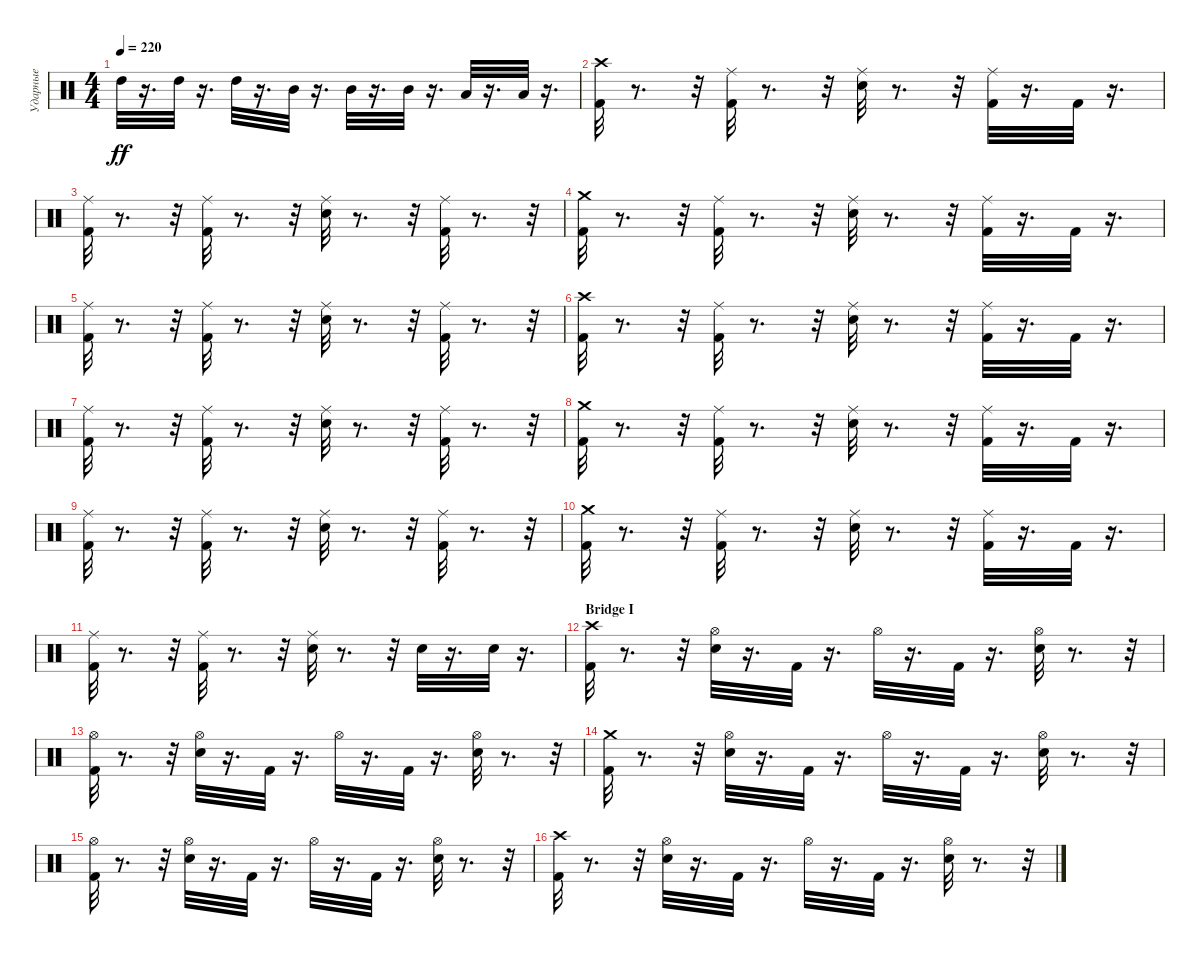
\track ("Ударные" "Ударные") {instrument percussion}
\staff {score}
\articulation defaults
\ts (4 4)
\tempo 220
\clef neutral
\ks c "High Tom (hit)".32{dy ff}
r.16{d} "High Tom (hit)".32 r.16{d} "High Tom (hit)".32 r.16{d} "Mid Tom (hit)".32 r.16{d} "Mid Tom (hit)".32 r.16{d} "Mid Tom (hit)".32 r.16{d} "Low Tom (hit)".32 r.16{d} "Low Tom (hit)".32 r.16{d} |
("Crash high (hit)" "Kick (hit) 2").32 r.8{d} r.32 ("Ride (middle)" "Kick (hit) 2").32 r.8{d} r.32 ("Ride (middle)" "Snare (hit) 2").32 r.8{d} r.32 ("Ride (middle)" "Kick (hit) 2").32 r.16{d} "Kick (hit) 2".32 r.16{d} |
("Ride (middle)" "Kick (hit) 2").32 r.8{d} r.32 ("Ride (middle)" "Kick (hit) 2").32 r.8{d} r.32 ("Ride (middle)" "Snare (hit) 2").32 r.8{d} r.32 ("Ride (middle)" "Kick (hit) 2").32 r.8{d} r.32 |
("Crash medium (hit)" "Kick (hit) 2").32 r.8{d} r.32 ("Ride (middle)" "Kick (hit) 2").32 r.8{d} r.32 ("Ride (middle)" "Snare (hit) 2").32 r.8{d} r.32 ("Ride (middle)" "Kick (hit) 2").32 r.16{d} "Kick (hit) 2".32 r.16{d} |
("Ride (middle)" "Kick (hit) 2").32 r.8{d} r.32 ("Ride (middle)" "Kick (hit) 2").32 r.8{d} r.32 ("Ride (middle)" "Snare (hit) 2").32 r.8{d} r.32 ("Ride (middle)" "Kick (hit) 2").32 r.8{d} r.32 |
("Crash high (hit)" "Kick (hit) 2").32 r.8{d} r.32 ("Ride (middle)" "Kick (hit) 2").32 r.8{d} r.32 ("Ride (middle)" "Snare (hit) 2").32 r.8{d} r.32 ("Ride (middle)" "Kick (hit) 2").32 r.16{d} "Kick (hit) 2".32 r.16{d} |
("Ride (middle)" "Kick (hit) 2").32 r.8{d} r.32 ("Ride (middle)" "Kick (hit) 2").32 r.8{d} r.32 ("Ride (middle)" "Snare (hit) 2").32 r.8{d} r.32 ("Ride (middle)" "Kick (hit) 2").32 r.8{d} r.32 |
("Crash medium (hit)" "Kick (hit) 2").32 r.8{d} r.32 ("Ride (middle)" "Kick (hit) 2").32 r.8{d} r.32 ("Ride (middle)" "Snare (hit) 2").32 r.8{d} r.32 ("Ride (middle)" "Kick (hit) 2").32 r.16{d} "Kick (hit) 2".32 r.16{d} |
("Ride (middle)" "Kick (hit) 2").32 r.8{d} r.32 ("Ride (middle)" "Kick (hit) 2").32 r.8{d} r.32 ("Ride (middle)" "Snare (hit) 2").32 r.8{d} r.32 ("Ride (middle)" "Kick (hit) 2").32 r.8{d} r.32 |
("Crash medium (hit)" "Kick (hit) 2").32 r.8{d} r.32 ("Ride (middle)" "Kick (hit) 2").32 r.8{d} r.32 ("Ride (middle)" "Snare (hit) 2").32 r.8{d} r.32 ("Ride (middle)" "Kick (hit) 2").32 r.16{d} "Kick (hit) 2".32 r.16{d} |
("Ride (middle)" "Kick (hit) 2").32 r.8{d} r.32 ("Ride (middle)" "Kick (hit) 2").32 r.8{d} r.32 ("Ride (middle)" "Snare (hit) 2").32 r.8{d} r.32 "Snare (hit) 2".32 r.16{d} "Snare (hit) 2".32 r.16{d} |
\section ("" "Bridge I")
("Crash high (hit)" "Kick (hit) 2").32 r.8{d} r.32 ("Hi-Hat (open)" "Snare (hit) 2").32 r.16{d} "Kick (hit) 2".32 r.16{d} "Hi-Hat (open)".32 r.16{d} "Kick (hit) 2".32 r.16{d} ("Hi-Hat (open)" "Snare (hit) 2").32 r.8{d} r.32 |
("Kick (hit) 2" "Hi-Hat (open)").32 r.8{d} r.32 ("Snare (hit) 2" "Hi-Hat (open)").32 r.16{d} "Kick (hit) 2".32 r.16{d} "Hi-Hat (open)".32 r.16{d} "Kick (hit) 2".32 r.16{d} ("Hi-Hat (open)" "Snare (hit) 2").32 r.8{d} r.32 |
("Crash medium (hit)" "Kick (hit) 2").32 r.8{d} r.32 ("Hi-Hat (open)" "Snare (hit) 2").32 r.16{d} "Kick (hit) 2".32 r.16{d} "Hi-Hat (open)".32 r.16{d} "Kick (hit) 2".32 r.16{d} ("Hi-Hat (open)" "Snare (hit) 2").32 r.8{d} r.32 |
("Kick (hit) 2" "Hi-Hat (open)").32 r.8{d} r.32 ("Snare (hit) 2" "Hi-Hat (open)").32 r.16{d} "Kick (hit) 2".32 r.16{d} "Hi-Hat (open)".32 r.16{d} "Kick (hit) 2".32 r.16{d} ("Hi-Hat (open)" "Snare (hit) 2").32 r.8{d} r.32 |
("Crash high (hit)" "Kick (hit) 2").32 r.8{d} r.32 ("Hi-Hat (open)" "Snare (hit) 2").32 r.16{d} "Kick (hit) 2".32 r.16{d} "Hi-Hat (open)".32 r.16{d} "Kick (hit) 2".32 r.16{d} ("Hi-Hat (open)" "Snare (hit) 2").32 r.8{d} r.32
